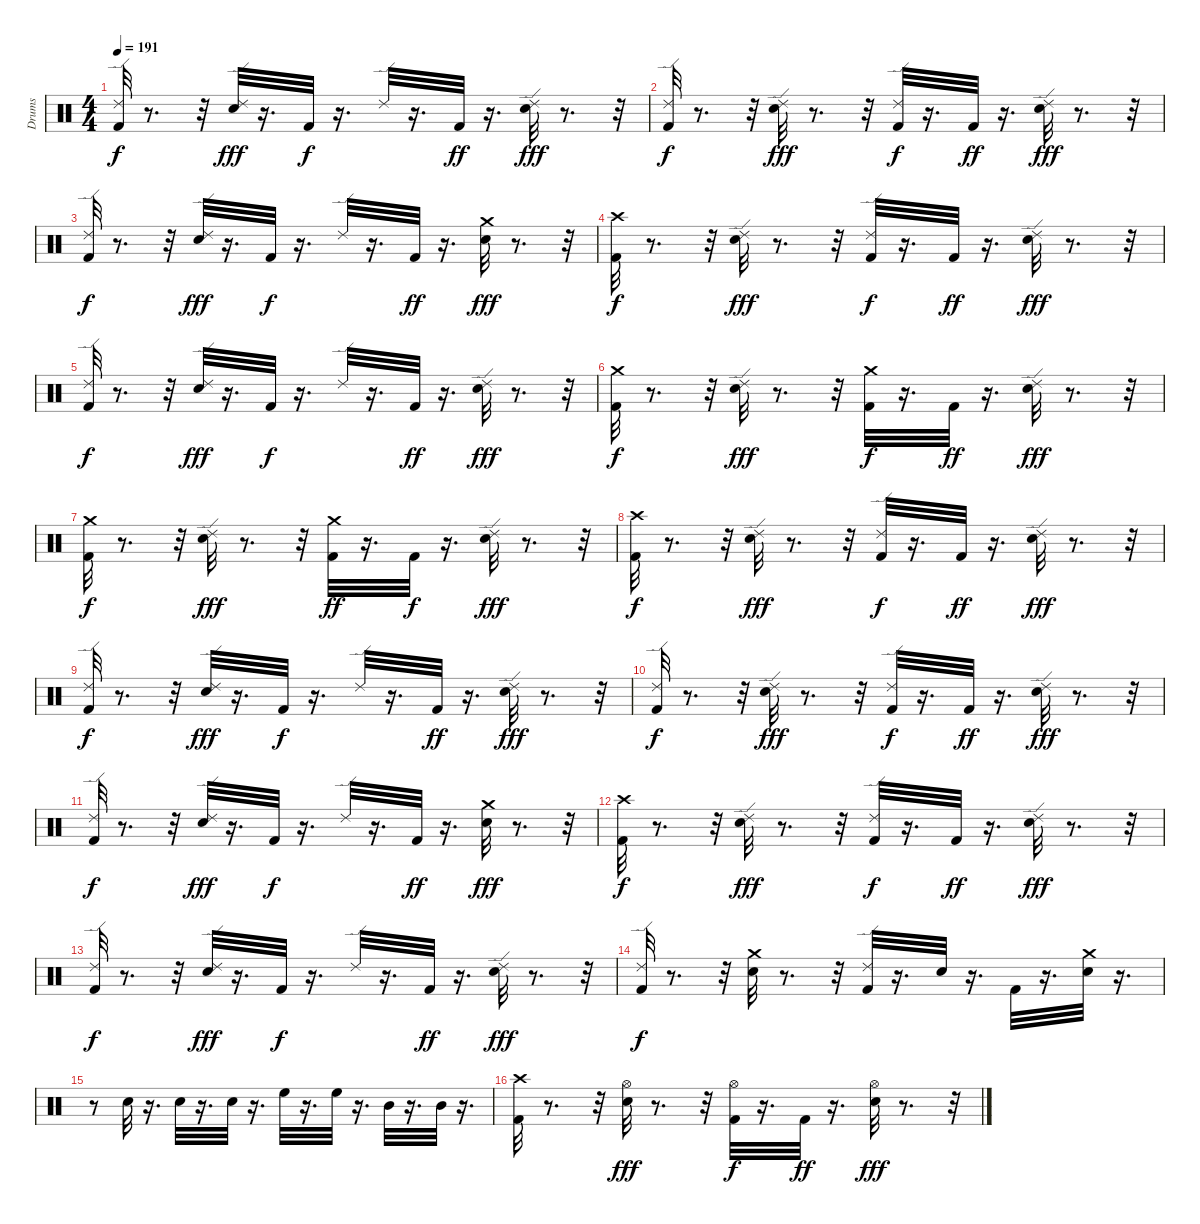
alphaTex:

\track ("Drums" "Drums") {instrument percussion}
\staff {score}
\articulation defaults
\ts (4 4)
\tempo 191
\clef neutral
\ks c
("Kick (hit) 2" "Ride (edge) 2").32{dy f} r.8{d} r.32 ("Snare (hit) 2" "Ride (edge) 2").32{dy fff} r.16{d} "Kick (hit) 2".32{dy f} r.16{d} "Ride (edge) 2".32 r.16{d} "Kick (hit) 2".32{dy ff} r.16{d} ("Snare (hit) 2" "Ride (edge) 2").32{dy fff} r.8{d} r.32 |
("Kick (hit) 2" "Ride (edge) 2").32{dy f} r.8{d} r.32 ("Snare (hit) 2" "Ride (edge) 2").32{dy fff} r.8{d} r.32 ("Kick (hit) 2" "Ride (edge) 2").32{dy f} r.16{d} "Kick (hit) 2".32{dy ff} r.16{d} ("Snare (hit) 2" "Ride (edge) 2").32{dy fff} r.8{d} r.32 |
("Kick (hit) 2" "Ride (edge) 2").32{dy f} r.8{d} r.32 ("Snare (hit) 2" "Ride (edge) 2").32{dy fff} r.16{d} "Kick (hit) 2".32{dy f} r.16{d} "Ride (edge) 2".32 r.16{d} "Kick (hit) 2".32{dy ff} r.16{d} ("Snare (hit) 2" "Crash medium (hit)").32{dy fff} r.8{d} r.32 |
("Crash high (hit)" "Kick (hit) 2").32{dy f} r.8{d} r.32 ("Snare (hit) 2" "Ride (edge) 2").32{dy fff} r.8{d} r.32 ("Kick (hit) 2" "Ride (edge) 2").32{dy f} r.16{d} "Kick (hit) 2".32{dy ff} r.16{d} ("Snare (hit) 2" "Ride (edge) 2").32{dy fff} r.8{d} r.32 |
("Kick (hit) 2" "Ride (edge) 2").32{dy f} r.8{d} r.32 ("Snare (hit) 2" "Ride (edge) 2").32{dy fff} r.16{d} "Kick (hit) 2".32{dy f} r.16{d} "Ride (edge) 2".32 r.16{d} "Kick (hit) 2".32{dy ff} r.16{d} ("Snare (hit) 2" "Ride (edge) 2").32{dy fff} r.8{d} r.32 |
("Kick (hit) 2" "Crash medium (hit)").32{dy f} r.8{d} r.32 ("Snare (hit) 2" "Ride (edge) 2").32{dy fff} r.8{d} r.32 ("Kick (hit) 2" "Crash medium (hit)").32{dy f} r.16{d} "Kick (hit) 2".32{dy ff} r.16{d} ("Snare (hit) 2" "Ride (edge) 2").32{dy fff} r.8{d} r.32 |
("Kick (hit) 2" "Crash medium (hit)").32{dy f} r.8{d} r.32 ("Snare (hit) 2" "Ride (edge) 2").32{dy fff} r.8{d} r.32 ("Kick (hit) 2" "Crash medium (hit)").32{dy ff} r.16{d} "Kick (hit) 2".32{dy f} r.16{d} ("Snare (hit) 2" "Ride (edge) 2").32{dy fff} r.8{d} r.32 |
("Crash high (hit)" "Kick (hit) 2").32{dy f} r.8{d} r.32 ("Snare (hit) 2" "Ride (edge) 2").32{dy fff} r.8{d} r.32 ("Kick (hit) 2" "Ride (edge) 2").32{dy f} r.16{d} "Kick (hit) 2".32{dy ff} r.16{d} ("Snare (hit) 2" "Ride (edge) 2").32{dy fff} r.8{d} r.32 |
("Kick (hit) 2" "Ride (edge) 2").32{dy f} r.8{d} r.32 ("Snare (hit) 2" "Ride (edge) 2").32{dy fff} r.16{d} "Kick (hit) 2".32{dy f} r.16{d} "Ride (edge) 2".32 r.16{d} "Kick (hit) 2".32{dy ff} r.16{d} ("Snare (hit) 2" "Ride (edge) 2").32{dy fff} r.8{d} r.32 |
("Kick (hit) 2" "Ride (edge) 2").32{dy f} r.8{d} r.32 ("Snare (hit) 2" "Ride (edge) 2").32{dy fff} r.8{d} r.32 ("Kick (hit) 2" "Ride (edge) 2").32{dy f} r.16{d} "Kick (hit) 2".32{dy ff} r.16{d} ("Snare (hit) 2" "Ride (edge) 2").32{dy fff} r.8{d} r.32 |
("Kick (hit) 2" "Ride (edge) 2").32{dy f} r.8{d} r.32 ("Snare (hit) 2" "Ride (edge) 2").32{dy fff} r.16{d} "Kick (hit) 2".32{dy f} r.16{d} "Ride (edge) 2".32 r.16{d} "Kick (hit) 2".32{dy ff} r.16{d} ("Snare (hit) 2" "Crash medium (hit)").32{dy fff} r.8{d} r.32 |
("Crash high (hit)" "Kick (hit) 2").32{dy f} r.8{d} r.32 ("Snare (hit) 2" "Ride (edge) 2").32{dy fff} r.8{d} r.32 ("Kick (hit) 2" "Ride (edge) 2").32{dy f} r.16{d} "Kick (hit) 2".32{dy ff} r.16{d} ("Snare (hit) 2" "Ride (edge) 2").32{dy fff} r.8{d} r.32 |
("Kick (hit) 2" "Ride (edge) 2").32{dy f} r.8{d} r.32 ("Snare (hit) 2" "Ride (edge) 2").32{dy fff} r.16{d} "Kick (hit) 2".32{dy f} r.16{d} "Ride (edge) 2".32 r.16{d} "Kick (hit) 2".32{dy ff} r.16{d} ("Snare (hit) 2" "Ride (edge) 2").32{dy fff} r.8{d} r.32 |
("Kick (hit) 2" "Ride (edge) 2").32{dy f} r.8{d} r.32 ("Snare (hit) 2" "Crash medium (hit)").32 r.8{d} r.32 ("Kick (hit) 2" "Ride (edge) 2").32 r.16{d} "Snare (hit) 2".32 r.16{d} "Kick (hit) 2".32 r.16{d} ("Snare (hit) 2" "Crash medium (hit)").32 r.16{d} |
r.8 "Snare (hit) 2".32 r.16{d} "Snare (hit) 2".32 r.16{d} "Snare (hit) 2".32 r.16{d} "High Floor Tom (hit)".32 r.16{d} "High Floor Tom (hit)".32 r.16{d} "Mid Tom (hit)".32 r.16{d} "Mid Tom (hit)".32 r.16{d} |
("Crash high (hit)" "Kick (hit) 2").32 r.8{d} r.32 ("Snare (hit) 2" "Hi-Hat (open)").32{dy fff} r.8{d} r.32 ("Kick (hit) 2" "Hi-Hat (open)").32{dy f} r.16{d} "Kick (hit) 2".32{dy ff} r.16{d} ("Snare (hit) 2" "Hi-Hat (open)").32{dy fff} r.8{d} r.32
